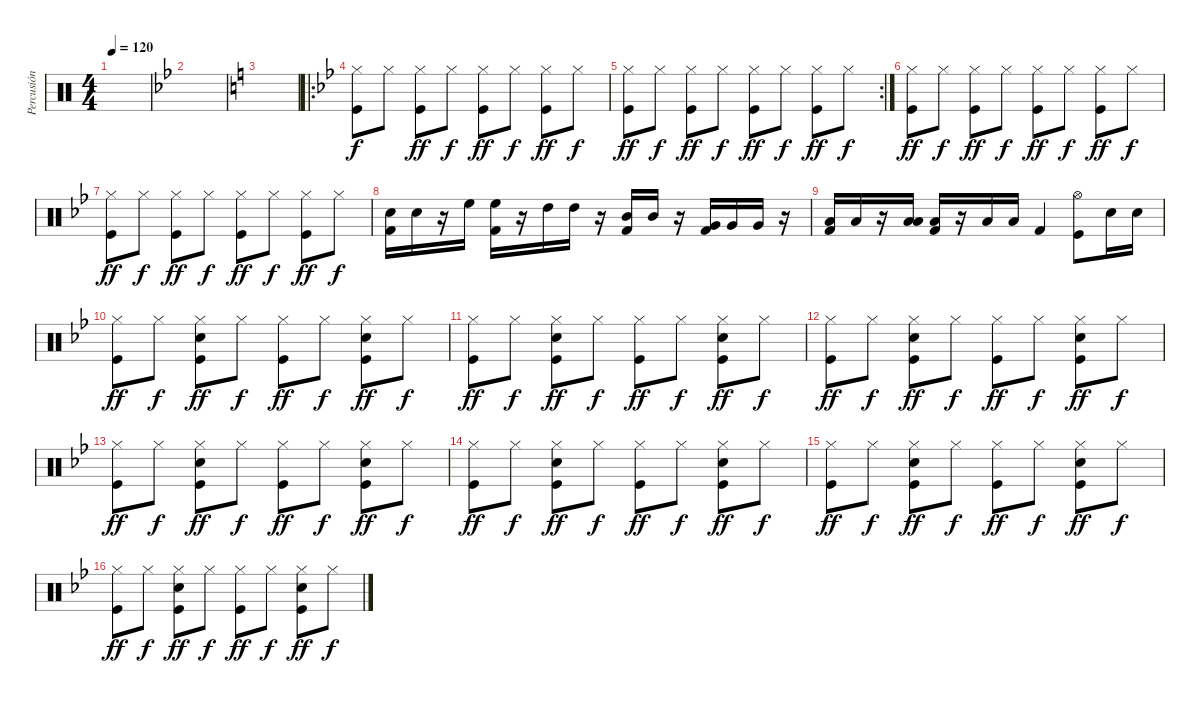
\track ("Percusión" "Percusión") {instrument percussion}
\staff {score}
\articulation defaults
\ts (4 4)
\tempo 120
\clef neutral
\ks c
|
\ks bb
|
\ks c
|
\ro
\ks bb
("Hi-Hat (closed)" "Kick (hit)").8 "Hi-Hat (closed)".8{dy f} ("Hi-Hat (closed)" "Kick (hit)").8{dy ff} "Hi-Hat (closed)".8{dy f} ("Hi-Hat (closed)" "Kick (hit)").8{dy ff} "Hi-Hat (closed)".8{dy f} ("Hi-Hat (closed)" "Kick (hit)").8{dy ff} "Hi-Hat (closed)".8{dy f} |
\rc 2
("Hi-Hat (closed)" "Kick (hit)").8{dy ff} "Hi-Hat (closed)".8{dy f} ("Hi-Hat (closed)" "Kick (hit)").8{dy ff} "Hi-Hat (closed)".8{dy f} ("Hi-Hat (closed)" "Kick (hit)").8{dy ff} "Hi-Hat (closed)".8{dy f} ("Hi-Hat (closed)" "Kick (hit)").8{dy ff} "Hi-Hat (closed)".8{dy f} |
("Hi-Hat (closed)" "Kick (hit)").8{dy ff} "Hi-Hat (closed)".8{dy f} ("Hi-Hat (closed)" "Kick (hit)").8{dy ff} "Hi-Hat (closed)".8{dy f} ("Hi-Hat (closed)" "Kick (hit)").8{dy ff} "Hi-Hat (closed)".8{dy f} ("Hi-Hat (closed)" "Kick (hit)").8{dy ff} "Hi-Hat (closed)".8{dy f} |
("Hi-Hat (closed)" "Kick (hit)").8{dy ff} "Hi-Hat (closed)".8{dy f} ("Hi-Hat (closed)" "Kick (hit)").8{dy ff} "Hi-Hat (closed)".8{dy f} ("Hi-Hat (closed)" "Kick (hit)").8{dy ff} "Hi-Hat (closed)".8{dy f} ("Hi-Hat (closed)" "Kick (hit)").8{dy ff} "Hi-Hat (closed)".8{dy f} |
("Kick (hit) 2" "Snare (hit) 2").16 "Snare (hit) 2".16 r.16 "High Floor Tom (hit)".16 ("Kick (hit) 2" "High Floor Tom (hit)").16 r.16 "High Tom (hit)".16 "High Tom (hit)".16 r.16 ("Kick (hit) 2" "Mid Tom (hit)").16 "Mid Tom (hit)".16 r.16 ("Kick (hit) 2" "Very Low Tom (hit)").16 "Very Low Tom (hit)".16 "Very Low Tom (hit)".16 r.16 |
("Kick (hit) 2" "Low Floor Tom (hit)").16 "Low Floor Tom (hit)".16 r.16 ("Low Floor Tom (hit)" "Low Floor Tom (hit)").16 ("Kick (hit) 2" "Low Floor Tom (hit)").16 r.16 "Low Floor Tom (hit)".16 "Low Floor Tom (hit)".16 "Kick (hit) 2".4 ("Hi-Hat (open)" "Kick (hit)").8 "Snare (hit) 2".16 "Snare (hit) 2".16 |
("Hi-Hat (closed)" "Kick (hit)").8{dy ff} "Hi-Hat (closed)".8{dy f} ("Hi-Hat (closed)" "Snare (hit) 2" "Kick (hit)").8{dy ff} "Hi-Hat (closed)".8{dy f} ("Hi-Hat (closed)" "Kick (hit)").8{dy ff} "Hi-Hat (closed)".8{dy f} ("Hi-Hat (closed)" "Snare (hit) 2" "Kick (hit)").8{dy ff} "Hi-Hat (closed)".8{dy f} |
("Hi-Hat (closed)" "Kick (hit)").8{dy ff} "Hi-Hat (closed)".8{dy f} ("Hi-Hat (closed)" "Snare (hit) 2" "Kick (hit)").8{dy ff} "Hi-Hat (closed)".8{dy f} ("Hi-Hat (closed)" "Kick (hit)").8{dy ff} "Hi-Hat (closed)".8{dy f} ("Hi-Hat (closed)" "Snare (hit) 2" "Kick (hit)").8{dy ff} "Hi-Hat (closed)".8{dy f} |
("Hi-Hat (closed)" "Kick (hit)").8{dy ff} "Hi-Hat (closed)".8{dy f} ("Hi-Hat (closed)" "Snare (hit) 2" "Kick (hit)").8{dy ff} "Hi-Hat (closed)".8{dy f} ("Hi-Hat (closed)" "Kick (hit)").8{dy ff} "Hi-Hat (closed)".8{dy f} ("Hi-Hat (closed)" "Snare (hit) 2" "Kick (hit)").8{dy ff} "Hi-Hat (closed)".8{dy f} |
("Hi-Hat (closed)" "Kick (hit)").8{dy ff} "Hi-Hat (closed)".8{dy f} ("Hi-Hat (closed)" "Snare (hit) 2" "Kick (hit)").8{dy ff} "Hi-Hat (closed)".8{dy f} ("Hi-Hat (closed)" "Kick (hit)").8{dy ff} "Hi-Hat (closed)".8{dy f} ("Hi-Hat (closed)" "Snare (hit) 2" "Kick (hit)").8{dy ff} "Hi-Hat (closed)".8{dy f} |
("Hi-Hat (closed)" "Kick (hit)").8{dy ff} "Hi-Hat (closed)".8{dy f} ("Hi-Hat (closed)" "Snare (hit) 2" "Kick (hit)").8{dy ff} "Hi-Hat (closed)".8{dy f} ("Hi-Hat (closed)" "Kick (hit)").8{dy ff} "Hi-Hat (closed)".8{dy f} ("Hi-Hat (closed)" "Snare (hit) 2" "Kick (hit)").8{dy ff} "Hi-Hat (closed)".8{dy f} |
("Hi-Hat (closed)" "Kick (hit)").8{dy ff} "Hi-Hat (closed)".8{dy f} ("Hi-Hat (closed)" "Snare (hit) 2" "Kick (hit)").8{dy ff} "Hi-Hat (closed)".8{dy f} ("Hi-Hat (closed)" "Kick (hit)").8{dy ff} "Hi-Hat (closed)".8{dy f} ("Hi-Hat (closed)" "Snare (hit) 2" "Kick (hit)").8{dy ff} "Hi-Hat (closed)".8{dy f} |
("Hi-Hat (closed)" "Kick (hit)").8{dy ff} "Hi-Hat (closed)".8{dy f} ("Hi-Hat (closed)" "Snare (hit) 2" "Kick (hit)").8{dy ff} "Hi-Hat (closed)".8{dy f} ("Hi-Hat (closed)" "Kick (hit)").8{dy ff} "Hi-Hat (closed)".8{dy f} ("Hi-Hat (closed)" "Snare (hit) 2" "Kick (hit)").8{dy ff} "Hi-Hat (closed)".8{dy f}
